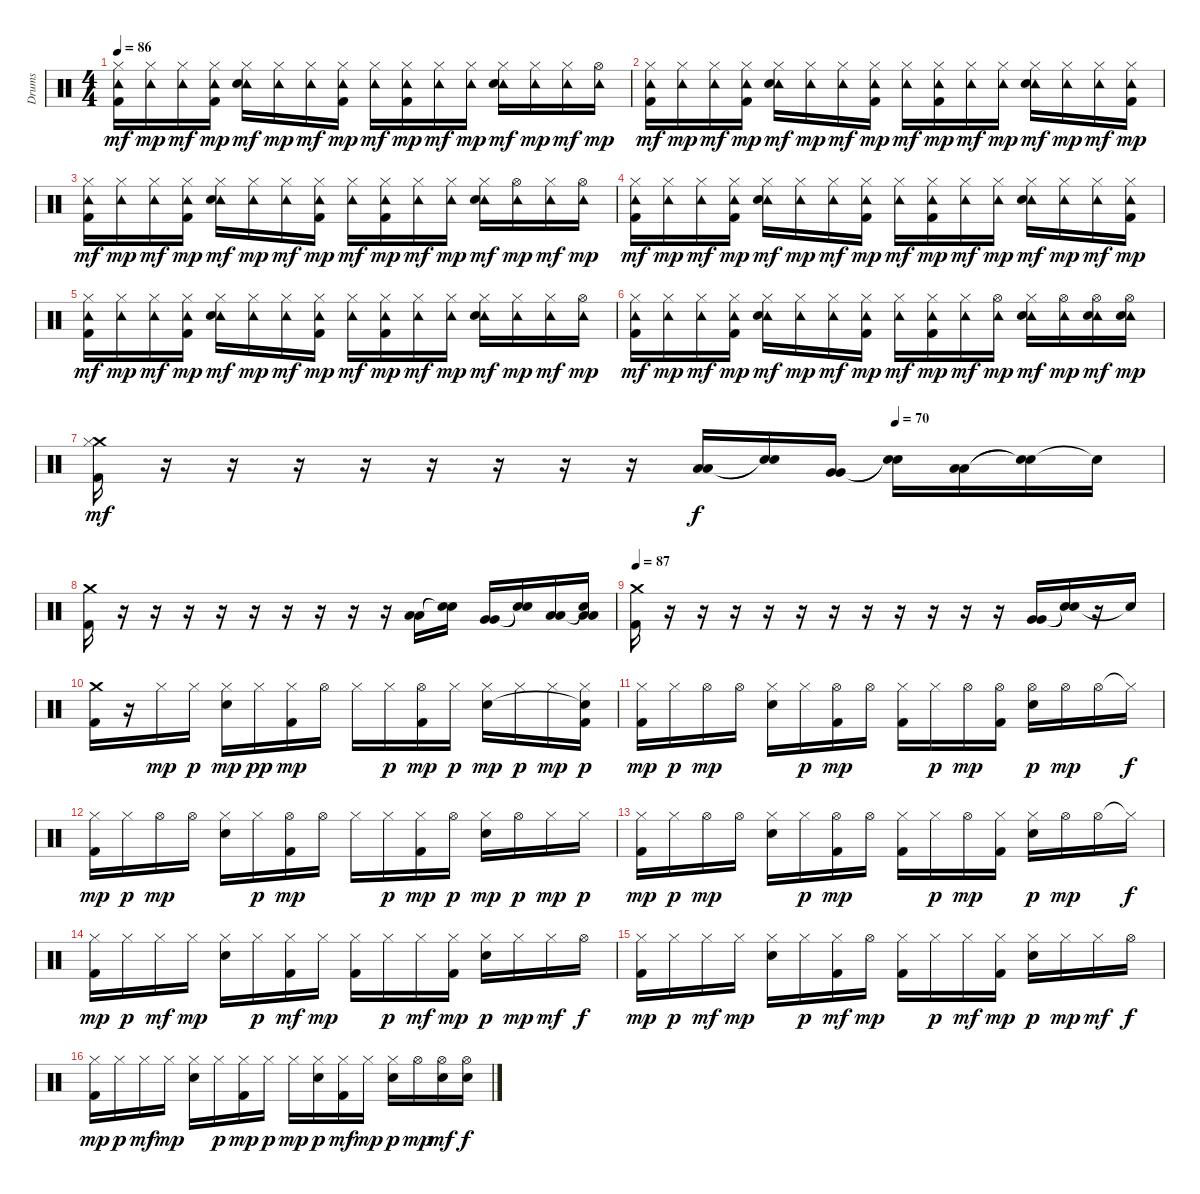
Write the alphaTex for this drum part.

\track ("Drums" "Drums") {instrument percussion}
\staff {score}
\articulation defaults
\ts (4 4)
\tempo 86
\clef neutral
\ks c
("Hi-Hat (closed)" "Tambourine (hit)" "Kick (hit) 2").16{dy mf} ("Hi-Hat (closed)" "Tambourine (hit)").16{dy mp} ("Hi-Hat (closed)" "Tambourine (hit)").16{dy mf} ("Hi-Hat (closed)" "Tambourine (hit)" "Kick (hit) 2").16{dy mp} ("Hi-Hat (closed)" "Tambourine (hit)" "Electric Snare (hit)").16{dy mf} ("Hi-Hat (closed)" "Tambourine (hit)").16{dy mp} ("Hi-Hat (closed)" "Tambourine (hit)").16{dy mf} ("Hi-Hat (closed)" "Tambourine (hit)" "Kick (hit) 2").16{dy mp} ("Hi-Hat (closed)" "Tambourine (hit)").16{dy mf} ("Hi-Hat (closed)" "Tambourine (hit)" "Kick (hit) 2").16{dy mp} ("Hi-Hat (closed)" "Tambourine (hit)").16{dy mf} ("Hi-Hat (closed)" "Tambourine (hit)").16{dy mp} ("Hi-Hat (closed)" "Tambourine (hit)" "Electric Snare (hit)").16{dy mf} ("Hi-Hat (closed)" "Tambourine (hit)").16{dy mp} ("Hi-Hat (closed)" "Tambourine (hit)").16{dy mf} ("Hi-Hat (open)" "Tambourine (hit)").16{dy mp} |
("Hi-Hat (closed)" "Tambourine (hit)" "Kick (hit) 2").16{dy mf} ("Hi-Hat (closed)" "Tambourine (hit)").16{dy mp} ("Hi-Hat (closed)" "Tambourine (hit)").16{dy mf} ("Hi-Hat (closed)" "Tambourine (hit)" "Kick (hit) 2").16{dy mp} ("Hi-Hat (closed)" "Tambourine (hit)" "Electric Snare (hit)").16{dy mf} ("Hi-Hat (closed)" "Tambourine (hit)").16{dy mp} ("Hi-Hat (closed)" "Tambourine (hit)").16{dy mf} ("Hi-Hat (closed)" "Tambourine (hit)" "Kick (hit) 2").16{dy mp} ("Hi-Hat (closed)" "Tambourine (hit)").16{dy mf} ("Hi-Hat (closed)" "Tambourine (hit)" "Kick (hit) 2").16{dy mp} ("Hi-Hat (closed)" "Tambourine (hit)").16{dy mf} ("Hi-Hat (closed)" "Tambourine (hit)").16{dy mp} ("Hi-Hat (closed)" "Tambourine (hit)" "Electric Snare (hit)").16{dy mf} ("Hi-Hat (closed)" "Tambourine (hit)").16{dy mp} ("Hi-Hat (closed)" "Tambourine (hit)").16{dy mf} ("Hi-Hat (closed)" "Tambourine (hit)" "Kick (hit) 2").16{dy mp} |
("Hi-Hat (closed)" "Tambourine (hit)" "Kick (hit) 2").16{dy mf} ("Hi-Hat (closed)" "Tambourine (hit)").16{dy mp} ("Hi-Hat (closed)" "Tambourine (hit)").16{dy mf} ("Hi-Hat (closed)" "Tambourine (hit)" "Kick (hit) 2").16{dy mp} ("Hi-Hat (closed)" "Tambourine (hit)" "Electric Snare (hit)").16{dy mf} ("Hi-Hat (closed)" "Tambourine (hit)").16{dy mp} ("Hi-Hat (closed)" "Tambourine (hit)").16{dy mf} ("Hi-Hat (closed)" "Tambourine (hit)" "Kick (hit) 2").16{dy mp} ("Hi-Hat (closed)" "Tambourine (hit)").16{dy mf} ("Hi-Hat (closed)" "Tambourine (hit)" "Kick (hit) 2").16{dy mp} ("Hi-Hat (closed)" "Tambourine (hit)").16{dy mf} ("Hi-Hat (closed)" "Tambourine (hit)").16{dy mp} ("Hi-Hat (closed)" "Tambourine (hit)" "Electric Snare (hit)").16{dy mf} ("Hi-Hat (open)" "Tambourine (hit)").16{dy mp} ("Hi-Hat (closed)" "Tambourine (hit)").16{dy mf} ("Hi-Hat (open)" "Tambourine (hit)").16{dy mp} |
("Hi-Hat (closed)" "Tambourine (hit)" "Kick (hit) 2").16{dy mf} ("Hi-Hat (closed)" "Tambourine (hit)").16{dy mp} ("Hi-Hat (closed)" "Tambourine (hit)").16{dy mf} ("Hi-Hat (closed)" "Tambourine (hit)" "Kick (hit) 2").16{dy mp} ("Hi-Hat (closed)" "Tambourine (hit)" "Electric Snare (hit)").16{dy mf} ("Hi-Hat (closed)" "Tambourine (hit)").16{dy mp} ("Hi-Hat (closed)" "Tambourine (hit)").16{dy mf} ("Hi-Hat (closed)" "Tambourine (hit)" "Kick (hit) 2").16{dy mp} ("Hi-Hat (closed)" "Tambourine (hit)").16{dy mf} ("Hi-Hat (closed)" "Tambourine (hit)" "Kick (hit) 2").16{dy mp} ("Hi-Hat (closed)" "Tambourine (hit)").16{dy mf} ("Hi-Hat (closed)" "Tambourine (hit)").16{dy mp} ("Hi-Hat (closed)" "Tambourine (hit)" "Electric Snare (hit)").16{dy mf} ("Hi-Hat (closed)" "Tambourine (hit)").16{dy mp} ("Hi-Hat (closed)" "Tambourine (hit)").16{dy mf} ("Hi-Hat (closed)" "Tambourine (hit)" "Kick (hit) 2").16{dy mp} |
("Hi-Hat (closed)" "Tambourine (hit)" "Kick (hit) 2").16{dy mf} ("Hi-Hat (closed)" "Tambourine (hit)").16{dy mp} ("Hi-Hat (closed)" "Tambourine (hit)").16{dy mf} ("Hi-Hat (closed)" "Tambourine (hit)" "Kick (hit) 2").16{dy mp} ("Hi-Hat (closed)" "Tambourine (hit)" "Electric Snare (hit)").16{dy mf} ("Hi-Hat (closed)" "Tambourine (hit)").16{dy mp} ("Hi-Hat (closed)" "Tambourine (hit)").16{dy mf} ("Hi-Hat (closed)" "Tambourine (hit)" "Kick (hit) 2").16{dy mp} ("Hi-Hat (closed)" "Tambourine (hit)").16{dy mf} ("Hi-Hat (closed)" "Tambourine (hit)" "Kick (hit) 2").16{dy mp} ("Hi-Hat (closed)" "Tambourine (hit)").16{dy mf} ("Hi-Hat (closed)" "Tambourine (hit)").16{dy mp} ("Hi-Hat (closed)" "Tambourine (hit)" "Electric Snare (hit)").16{dy mf} ("Hi-Hat (closed)" "Tambourine (hit)").16{dy mp} ("Hi-Hat (closed)" "Tambourine (hit)").16{dy mf} ("Hi-Hat (open)" "Tambourine (hit)").16{dy mp} |
("Hi-Hat (closed)" "Tambourine (hit)" "Kick (hit) 2").16{dy mf} ("Hi-Hat (closed)" "Tambourine (hit)").16{dy mp} ("Hi-Hat (closed)" "Tambourine (hit)").16{dy mf} ("Hi-Hat (closed)" "Tambourine (hit)" "Kick (hit) 2").16{dy mp} ("Hi-Hat (closed)" "Tambourine (hit)" "Electric Snare (hit)").16{dy mf} ("Hi-Hat (closed)" "Tambourine (hit)").16{dy mp} ("Hi-Hat (closed)" "Tambourine (hit)").16{dy mf} ("Hi-Hat (closed)" "Tambourine (hit)" "Kick (hit) 2").16{dy mp} ("Hi-Hat (closed)" "Tambourine (hit)").16{dy mf} ("Hi-Hat (closed)" "Tambourine (hit)" "Kick (hit) 2").16{dy mp} ("Hi-Hat (closed)" "Tambourine (hit)").16{dy mf} ("Hi-Hat (open)" "Tambourine (hit)").16{dy mp} ("Hi-Hat (closed)" "Tambourine (hit)" "Electric Snare (hit)").16{dy mf} ("Hi-Hat (open)" "Tambourine (hit)").16{dy mp} ("Hi-Hat (open)" "Tambourine (hit)" "Electric Snare (hit)").16{dy mf} ("Hi-Hat (open)" "Tambourine (hit)" "Electric Snare (hit)").16{dy mp} |
\tempo (70 0.75)
("Crash medium (hit)" "Hi-Hat (closed)" "Kick (hit) 2").16{dy mf} r.16 r.16 r.16 r.16 r.16 r.16 r.16 r.16 ("Low Tom (hit)" "Low Tom (hit)").16{dy f} ("Snare (hit)"{t} "Snare (hit)"{t}).16 ("Very Low Tom (hit)" "Very Low Tom (hit)").16 ("Snare (hit)"{t} "Snare (hit)"{t}).16 ("Low Floor Tom (hit)" "Low Floor Tom (hit)").16 ("Snare (hit)"{t} "Snare (hit)"{t}).16 "Snare (hit)"{t}.16 |
("Crash medium (hit)" "Kick (hit) 2").16 r.16 r.16 r.16 r.16 r.16 r.16 r.16 r.16 r.16 ("Low Tom (hit)" "Low Tom (hit)").16 ("Snare (hit)"{t} "Snare (hit)"{t}).16 ("Very Low Tom (hit)" "Very Low Tom (hit)").16 ("Snare (hit)"{t} "Snare (hit)"{t}).16 ("Low Floor Tom (hit)" "Low Floor Tom (hit)").16 ("Snare (hit)"{t} "Low Floor Tom (hit)" "Low Floor Tom (hit)").16 |
\tempo 87
("Crash medium (hit)" "Kick (hit) 2").16 r.16 r.16 r.16 r.16 r.16 r.16 r.16 r.16 r.16 r.16 r.16 ("Very Low Tom (hit)" "Very Low Tom (hit)").16 ("Snare (hit)"{t} "Snare (hit)"{t}).16 r.16 "Snare (hit)"{t}.16 |
("Crash medium (hit)" "Kick (hit) 2").16 r.16 "Hi-Hat (closed)".16{dy mp} "Hi-Hat (closed)".16{dy p} ("Hi-Hat (closed)" "Electric Snare (hit)").16{dy mp} "Hi-Hat (closed)".16{dy pp} ("Hi-Hat (closed)" "Kick (hit) 2").16{dy mp} "Hi-Hat (open)".16 "Hi-Hat (closed)".16 "Hi-Hat (closed)".16{dy p} ("Hi-Hat (open)" "Kick (hit) 2").16{dy mp} "Hi-Hat (closed)".16{dy p} ("Hi-Hat (closed)" "Electric Snare (hit)").16{dy mp} "Hi-Hat (closed)".16{dy p} "Hi-Hat (closed)".16{dy mp} ("Hi-Hat (closed)" "Snare (hit)"{t} "Kick (hit) 2").16{dy p} |
("Hi-Hat (closed)" "Kick (hit) 2").16{dy mp} "Hi-Hat (closed)".16{dy p} "Hi-Hat (open)".16{dy mp} "Hi-Hat (open)".16 ("Hi-Hat (closed)" "Electric Snare (hit)").16 "Hi-Hat (closed)".16{dy p} ("Hi-Hat (open)" "Kick (hit) 2").16{dy mp} "Hi-Hat (open)".16 ("Hi-Hat (closed)" "Kick (hit) 2").16 "Hi-Hat (closed)".16{dy p} "Hi-Hat (open)".16{dy mp} ("Hi-Hat (open)" "Kick (hit) 2").16 ("Hi-Hat (open)" "Electric Snare (hit)").16{dy p} "Hi-Hat (open)".16{dy mp} "Hi-Hat (open)".16 "Hi-Hat (closed)"{t}.16{dy f} |
("Hi-Hat (closed)" "Kick (hit) 2").16{dy mp} "Hi-Hat (closed)".16{dy p} "Hi-Hat (open)".16{dy mp} "Hi-Hat (open)".16 ("Hi-Hat (closed)" "Electric Snare (hit)").16 "Hi-Hat (closed)".16{dy p} ("Hi-Hat (open)" "Kick (hit) 2").16{dy mp} "Hi-Hat (open)".16 "Hi-Hat (closed)".16 "Hi-Hat (closed)".16{dy p} ("Hi-Hat (closed)" "Kick (hit) 2").16{dy mp} "Hi-Hat (open)".16{dy p} ("Hi-Hat (closed)" "Electric Snare (hit)").16{dy mp} "Hi-Hat (open)".16{dy p} "Hi-Hat (closed)".16{dy mp} "Hi-Hat (closed)".16{dy p} |
("Hi-Hat (closed)" "Kick (hit) 2").16{dy mp} "Hi-Hat (closed)".16{dy p} "Hi-Hat (open)".16{dy mp} "Hi-Hat (open)".16 ("Hi-Hat (closed)" "Electric Snare (hit)").16 "Hi-Hat (closed)".16{dy p} ("Hi-Hat (open)" "Kick (hit) 2").16{dy mp} "Hi-Hat (open)".16 ("Hi-Hat (closed)" "Kick (hit) 2").16 "Hi-Hat (closed)".16{dy p} "Hi-Hat (open)".16{dy mp} ("Hi-Hat (closed)" "Kick (hit) 2").16 ("Hi-Hat (closed)" "Electric Snare (hit)").16{dy p} "Hi-Hat (open)".16{dy mp} "Hi-Hat (open)".16 "Hi-Hat (closed)"{t}.16{dy f} |
("Hi-Hat (closed)" "Kick (hit) 2").16{dy mp} "Hi-Hat (closed)".16{dy p} "Hi-Hat (closed)".16{dy mf} "Hi-Hat (closed)".16{dy mp} ("Hi-Hat (closed)" "Electric Snare (hit)").16 "Hi-Hat (closed)".16{dy p} ("Hi-Hat (closed)" "Kick (hit) 2").16{dy mf} "Hi-Hat (closed)".16{dy mp} ("Hi-Hat (closed)" "Kick (hit) 2").16 "Hi-Hat (closed)".16{dy p} "Hi-Hat (closed)".16{dy mf} ("Hi-Hat (closed)" "Kick (hit) 2").16{dy mp} ("Hi-Hat (closed)" "Electric Snare (hit)").16{dy p} "Hi-Hat (closed)".16{dy mp} "Hi-Hat (closed)".16{dy mf} "Hi-Hat (open)".16{dy f} |
("Hi-Hat (closed)" "Kick (hit) 2").16{dy mp} "Hi-Hat (closed)".16{dy p} "Hi-Hat (closed)".16{dy mf} "Hi-Hat (closed)".16{dy mp} ("Hi-Hat (closed)" "Electric Snare (hit)").16 "Hi-Hat (closed)".16{dy p} ("Hi-Hat (closed)" "Kick (hit) 2").16{dy mf} "Hi-Hat (open)".16{dy mp} ("Hi-Hat (closed)" "Kick (hit) 2").16 "Hi-Hat (closed)".16{dy p} "Hi-Hat (closed)".16{dy mf} ("Hi-Hat (closed)" "Kick (hit) 2").16{dy mp} ("Hi-Hat (closed)" "Electric Snare (hit)").16{dy p} "Hi-Hat (closed)".16{dy mp} "Hi-Hat (closed)".16{dy mf} "Hi-Hat (open)".16{dy f} |
("Hi-Hat (closed)" "Kick (hit) 2").16{dy mp} "Hi-Hat (closed)".16{dy p} "Hi-Hat (closed)".16{dy mf} "Hi-Hat (closed)".16{dy mp} ("Hi-Hat (closed)" "Electric Snare (hit)").16 "Hi-Hat (closed)".16{dy p} ("Hi-Hat (closed)" "Kick (hit) 2").16{dy mp} "Hi-Hat (closed)".16{dy p} "Hi-Hat (closed)".16{dy mp} ("Hi-Hat (closed)" "Electric Snare (hit)").16{dy p} ("Hi-Hat (closed)" "Kick (hit) 2").16{dy mf} "Hi-Hat (closed)".16{dy mp} ("Hi-Hat (closed)" "Electric Snare (hit)").16{dy p} "Hi-Hat (open)".16{dy mp} ("Hi-Hat (open)" "Electric Snare (hit)").16{dy mf} ("Hi-Hat (open)" "Electric Snare (hit)").16{dy f}
